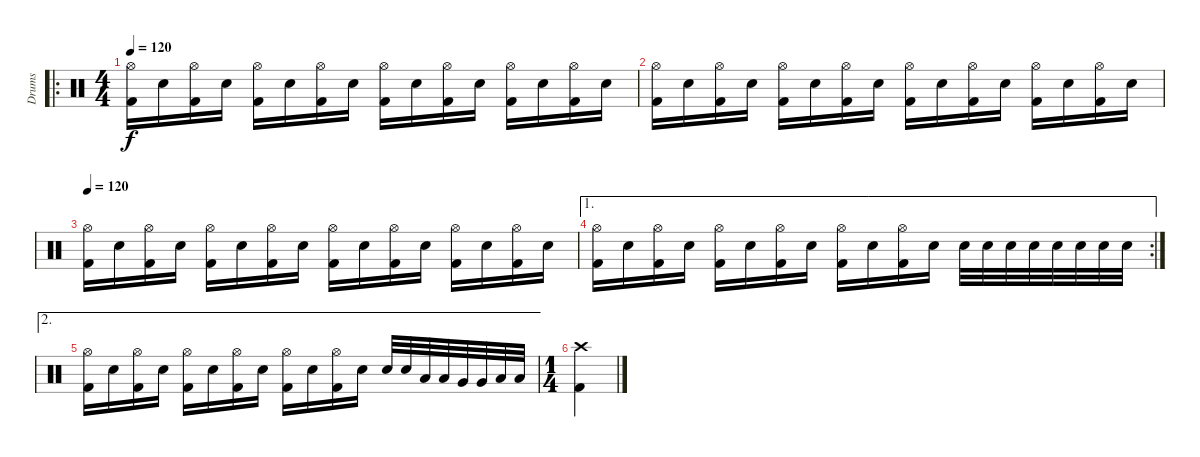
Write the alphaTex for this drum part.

\track ("Drums" "Drums") {instrument percussion}
\staff {score}
\articulation defaults
\ro
\ts (4 4)
\tempo 120
\clef neutral
\ks c
("Hi-Hat (open)" "Kick (hit) 2").16{dy f} "Electric Snare (hit)".16 ("Hi-Hat (open)" "Kick (hit) 2").16 "Electric Snare (hit)".16 ("Hi-Hat (open)" "Kick (hit) 2").16 "Electric Snare (hit)".16 ("Hi-Hat (open)" "Kick (hit) 2").16 "Electric Snare (hit)".16 ("Hi-Hat (open)" "Kick (hit) 2").16 "Electric Snare (hit)".16 ("Hi-Hat (open)" "Kick (hit) 2").16 "Electric Snare (hit)".16 ("Hi-Hat (open)" "Kick (hit) 2").16 "Electric Snare (hit)".16 ("Hi-Hat (open)" "Kick (hit) 2").16 "Electric Snare (hit)".16 |
("Hi-Hat (open)" "Kick (hit) 2").16 "Electric Snare (hit)".16 ("Hi-Hat (open)" "Kick (hit) 2").16 "Electric Snare (hit)".16 ("Hi-Hat (open)" "Kick (hit) 2").16 "Electric Snare (hit)".16 ("Hi-Hat (open)" "Kick (hit) 2").16 "Electric Snare (hit)".16 ("Hi-Hat (open)" "Kick (hit) 2").16 "Electric Snare (hit)".16 ("Hi-Hat (open)" "Kick (hit) 2").16 "Electric Snare (hit)".16 ("Hi-Hat (open)" "Kick (hit) 2").16 "Electric Snare (hit)".16 ("Hi-Hat (open)" "Kick (hit) 2").16 "Electric Snare (hit)".16 |
\tempo 120
("Hi-Hat (open)" "Kick (hit) 2").16 "Electric Snare (hit)".16 ("Hi-Hat (open)" "Kick (hit) 2").16 "Electric Snare (hit)".16 ("Hi-Hat (open)" "Kick (hit) 2").16 "Electric Snare (hit)".16 ("Hi-Hat (open)" "Kick (hit) 2").16 "Electric Snare (hit)".16 ("Hi-Hat (open)" "Kick (hit) 2").16 "Electric Snare (hit)".16 ("Hi-Hat (open)" "Kick (hit) 2").16 "Electric Snare (hit)".16 ("Hi-Hat (open)" "Kick (hit) 2").16 "Electric Snare (hit)".16 ("Hi-Hat (open)" "Kick (hit) 2").16 "Electric Snare (hit)".16 |
\ae 1
\rc 2
("Hi-Hat (open)" "Kick (hit) 2").16 "Electric Snare (hit)".16 ("Hi-Hat (open)" "Kick (hit) 2").16 "Electric Snare (hit)".16 ("Hi-Hat (open)" "Kick (hit) 2").16 "Electric Snare (hit)".16 ("Hi-Hat (open)" "Kick (hit) 2").16 "Electric Snare (hit)".16 ("Hi-Hat (open)" "Kick (hit) 2").16 "Electric Snare (hit)".16 ("Hi-Hat (open)" "Kick (hit) 2").16 "Electric Snare (hit)".16 "Electric Snare (hit)".32 "Electric Snare (hit)".32 "Electric Snare (hit)".32 "Electric Snare (hit)".32 "Electric Snare (hit)".32 "Electric Snare (hit)".32 "Electric Snare (hit)".32 "Electric Snare (hit)".32 |
\ae 2
("Hi-Hat (open)" "Kick (hit) 2").16 "Electric Snare (hit)".16 ("Hi-Hat (open)" "Kick (hit) 2").16 "Electric Snare (hit)".16 ("Hi-Hat (open)" "Kick (hit) 2").16 "Electric Snare (hit)".16 ("Hi-Hat (open)" "Kick (hit) 2").16 "Electric Snare (hit)".16 ("Hi-Hat (open)" "Kick (hit) 2").16 "Electric Snare (hit)".16 ("Hi-Hat (open)" "Kick (hit) 2").16 "Electric Snare (hit)".16 "Electric Snare (hit)".32 "Electric Snare (hit)".32 "Low Tom (hit)".32 "Low Tom (hit)".32 "Very Low Tom (hit)".32 "Very Low Tom (hit)".32 "Low Floor Tom (hit)".32 "Low Floor Tom (hit)".32 |
\ts (1 4)
("Crash high (hit)" "Kick (hit) 2").4
